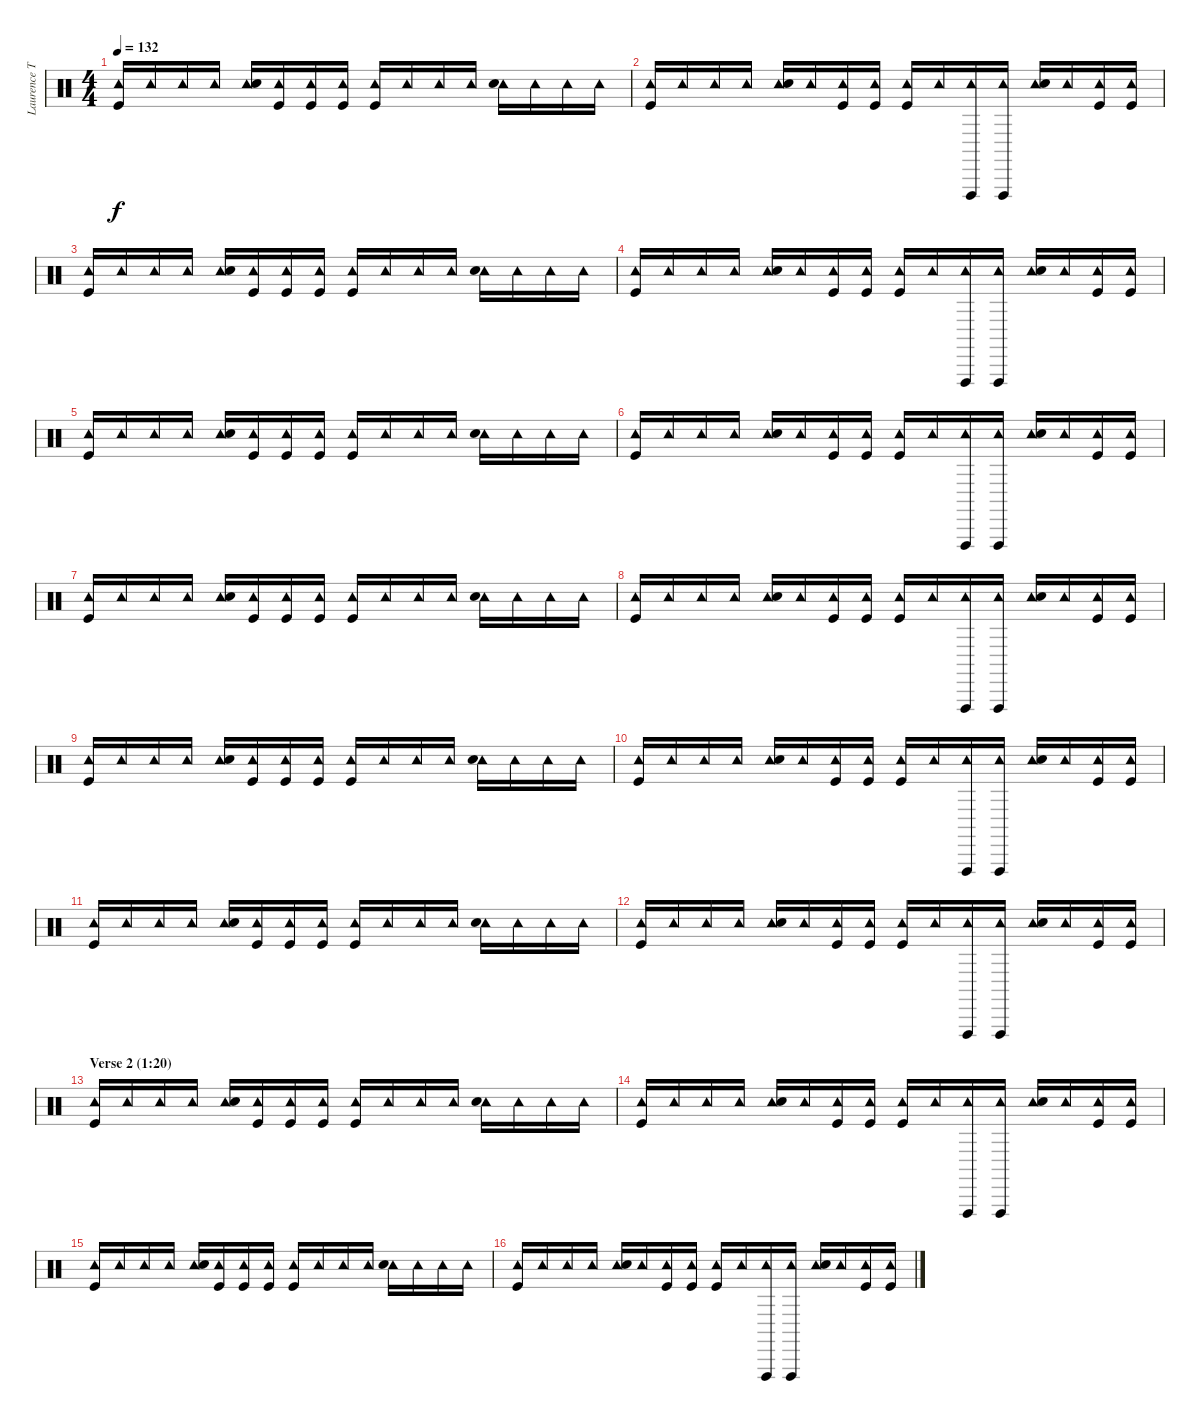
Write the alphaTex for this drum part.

\track ("Laurence Tolhurst (drums)" "Laurence T") {instrument percussion}
\staff {score}
\articulation defaults
\ts (4 4)
\tempo 132
\clef neutral
\ks c
("Tambourine (hit)" "Kick (hit)").16{dy f} "Tambourine (hit)".16 "Tambourine (hit)".16 "Tambourine (hit)".16 ("Tambourine (hit)" "Snare (hit) 2").16 ("Tambourine (hit)" "Kick (hit)").16 ("Tambourine (hit)" "Kick (hit)").16 ("Tambourine (hit)" "Kick (hit)").16 ("Tambourine (hit)" "Kick (hit)").16 "Tambourine (hit)".16 "Tambourine (hit)".16 "Tambourine (hit)".16 ("Tambourine (hit)" "Snare (hit) 2").16 "Tambourine (hit)".16 "Tambourine (hit)".16 "Tambourine (hit)".16 |
("Tambourine (hit)" "Kick (hit)").16 "Tambourine (hit)".16 "Tambourine (hit)".16 "Tambourine (hit)".16 ("Tambourine (hit)" "Snare (hit) 2").16 "Tambourine (hit)".16 ("Tambourine (hit)" "Kick (hit)").16 ("Tambourine (hit)" "Kick (hit)").16 ("Tambourine (hit)" "Kick (hit)").16 "Tambourine (hit)".16 ("Tambourine (hit)" "Vibraslap (hit)").16 ("Tambourine (hit)" "Vibraslap (hit)").16 ("Tambourine (hit)" "Snare (hit) 2").16 "Tambourine (hit)".16 ("Tambourine (hit)" "Kick (hit)").16 ("Tambourine (hit)" "Kick (hit)").16 |
("Tambourine (hit)" "Kick (hit)").16 "Tambourine (hit)".16 "Tambourine (hit)".16 "Tambourine (hit)".16 ("Tambourine (hit)" "Snare (hit) 2").16 ("Tambourine (hit)" "Kick (hit)").16 ("Tambourine (hit)" "Kick (hit)").16 ("Tambourine (hit)" "Kick (hit)").16 ("Tambourine (hit)" "Kick (hit)").16 "Tambourine (hit)".16 "Tambourine (hit)".16 "Tambourine (hit)".16 ("Tambourine (hit)" "Snare (hit) 2").16 "Tambourine (hit)".16 "Tambourine (hit)".16 "Tambourine (hit)".16 |
("Tambourine (hit)" "Kick (hit)").16 "Tambourine (hit)".16 "Tambourine (hit)".16 "Tambourine (hit)".16 ("Tambourine (hit)" "Snare (hit) 2").16 "Tambourine (hit)".16 ("Tambourine (hit)" "Kick (hit)").16 ("Tambourine (hit)" "Kick (hit)").16 ("Tambourine (hit)" "Kick (hit)").16 "Tambourine (hit)".16 ("Tambourine (hit)" "Vibraslap (hit)").16 ("Tambourine (hit)" "Vibraslap (hit)").16 ("Tambourine (hit)" "Snare (hit) 2").16 "Tambourine (hit)".16 ("Tambourine (hit)" "Kick (hit)").16 ("Tambourine (hit)" "Kick (hit)").16 |
("Tambourine (hit)" "Kick (hit)").16 "Tambourine (hit)".16 "Tambourine (hit)".16 "Tambourine (hit)".16 ("Tambourine (hit)" "Snare (hit) 2").16 ("Tambourine (hit)" "Kick (hit)").16 ("Tambourine (hit)" "Kick (hit)").16 ("Tambourine (hit)" "Kick (hit)").16 ("Tambourine (hit)" "Kick (hit)").16 "Tambourine (hit)".16 "Tambourine (hit)".16 "Tambourine (hit)".16 ("Tambourine (hit)" "Snare (hit) 2").16 "Tambourine (hit)".16 "Tambourine (hit)".16 "Tambourine (hit)".16 |
("Tambourine (hit)" "Kick (hit)").16 "Tambourine (hit)".16 "Tambourine (hit)".16 "Tambourine (hit)".16 ("Tambourine (hit)" "Snare (hit) 2").16 "Tambourine (hit)".16 ("Tambourine (hit)" "Kick (hit)").16 ("Tambourine (hit)" "Kick (hit)").16 ("Tambourine (hit)" "Kick (hit)").16 "Tambourine (hit)".16 ("Tambourine (hit)" "Vibraslap (hit)").16 ("Tambourine (hit)" "Vibraslap (hit)").16 ("Tambourine (hit)" "Snare (hit) 2").16 "Tambourine (hit)".16 ("Tambourine (hit)" "Kick (hit)").16 ("Tambourine (hit)" "Kick (hit)").16 |
("Tambourine (hit)" "Kick (hit)").16 "Tambourine (hit)".16 "Tambourine (hit)".16 "Tambourine (hit)".16 ("Tambourine (hit)" "Snare (hit) 2").16 ("Tambourine (hit)" "Kick (hit)").16 ("Tambourine (hit)" "Kick (hit)").16 ("Tambourine (hit)" "Kick (hit)").16 ("Tambourine (hit)" "Kick (hit)").16 "Tambourine (hit)".16 "Tambourine (hit)".16 "Tambourine (hit)".16 ("Tambourine (hit)" "Snare (hit) 2").16 "Tambourine (hit)".16 "Tambourine (hit)".16 "Tambourine (hit)".16 |
("Tambourine (hit)" "Kick (hit)").16 "Tambourine (hit)".16 "Tambourine (hit)".16 "Tambourine (hit)".16 ("Tambourine (hit)" "Snare (hit) 2").16 "Tambourine (hit)".16 ("Tambourine (hit)" "Kick (hit)").16 ("Tambourine (hit)" "Kick (hit)").16 ("Tambourine (hit)" "Kick (hit)").16 "Tambourine (hit)".16 ("Tambourine (hit)" "Vibraslap (hit)").16 ("Tambourine (hit)" "Vibraslap (hit)").16 ("Tambourine (hit)" "Snare (hit) 2").16 "Tambourine (hit)".16 ("Tambourine (hit)" "Kick (hit)").16 ("Tambourine (hit)" "Kick (hit)").16 |
("Tambourine (hit)" "Kick (hit)").16 "Tambourine (hit)".16 "Tambourine (hit)".16 "Tambourine (hit)".16 ("Tambourine (hit)" "Snare (hit) 2").16 ("Tambourine (hit)" "Kick (hit)").16 ("Tambourine (hit)" "Kick (hit)").16 ("Tambourine (hit)" "Kick (hit)").16 ("Tambourine (hit)" "Kick (hit)").16 "Tambourine (hit)".16 "Tambourine (hit)".16 "Tambourine (hit)".16 ("Tambourine (hit)" "Snare (hit) 2").16 "Tambourine (hit)".16 "Tambourine (hit)".16 "Tambourine (hit)".16 |
("Tambourine (hit)" "Kick (hit)").16 "Tambourine (hit)".16 "Tambourine (hit)".16 "Tambourine (hit)".16 ("Tambourine (hit)" "Snare (hit) 2").16 "Tambourine (hit)".16 ("Tambourine (hit)" "Kick (hit)").16 ("Tambourine (hit)" "Kick (hit)").16 ("Tambourine (hit)" "Kick (hit)").16 "Tambourine (hit)".16 ("Tambourine (hit)" "Vibraslap (hit)").16 ("Tambourine (hit)" "Vibraslap (hit)").16 ("Tambourine (hit)" "Snare (hit) 2").16 "Tambourine (hit)".16 ("Tambourine (hit)" "Kick (hit)").16 ("Tambourine (hit)" "Kick (hit)").16 |
("Tambourine (hit)" "Kick (hit)").16 "Tambourine (hit)".16 "Tambourine (hit)".16 "Tambourine (hit)".16 ("Tambourine (hit)" "Snare (hit) 2").16 ("Tambourine (hit)" "Kick (hit)").16 ("Tambourine (hit)" "Kick (hit)").16 ("Tambourine (hit)" "Kick (hit)").16 ("Tambourine (hit)" "Kick (hit)").16 "Tambourine (hit)".16 "Tambourine (hit)".16 "Tambourine (hit)".16 ("Tambourine (hit)" "Snare (hit) 2").16 "Tambourine (hit)".16 "Tambourine (hit)".16 "Tambourine (hit)".16 |
("Tambourine (hit)" "Kick (hit)").16 "Tambourine (hit)".16 "Tambourine (hit)".16 "Tambourine (hit)".16 ("Tambourine (hit)" "Snare (hit) 2").16 "Tambourine (hit)".16 ("Tambourine (hit)" "Kick (hit)").16 ("Tambourine (hit)" "Kick (hit)").16 ("Tambourine (hit)" "Kick (hit)").16 "Tambourine (hit)".16 ("Tambourine (hit)" "Vibraslap (hit)").16 ("Tambourine (hit)" "Vibraslap (hit)").16 ("Tambourine (hit)" "Snare (hit) 2").16 "Tambourine (hit)".16 ("Tambourine (hit)" "Kick (hit)").16 ("Tambourine (hit)" "Kick (hit)").16 |
\section ("" "Verse 2 (1:20)")
("Tambourine (hit)" "Kick (hit)").16 "Tambourine (hit)".16 "Tambourine (hit)".16 "Tambourine (hit)".16 ("Tambourine (hit)" "Snare (hit) 2").16 ("Tambourine (hit)" "Kick (hit)").16 ("Tambourine (hit)" "Kick (hit)").16 ("Tambourine (hit)" "Kick (hit)").16 ("Tambourine (hit)" "Kick (hit)").16 "Tambourine (hit)".16 "Tambourine (hit)".16 "Tambourine (hit)".16 ("Tambourine (hit)" "Snare (hit) 2").16 "Tambourine (hit)".16 "Tambourine (hit)".16 "Tambourine (hit)".16 |
("Tambourine (hit)" "Kick (hit)").16 "Tambourine (hit)".16 "Tambourine (hit)".16 "Tambourine (hit)".16 ("Tambourine (hit)" "Snare (hit) 2").16 "Tambourine (hit)".16 ("Tambourine (hit)" "Kick (hit)").16 ("Tambourine (hit)" "Kick (hit)").16 ("Tambourine (hit)" "Kick (hit)").16 "Tambourine (hit)".16 ("Tambourine (hit)" "Vibraslap (hit)").16 ("Tambourine (hit)" "Vibraslap (hit)").16 ("Tambourine (hit)" "Snare (hit) 2").16 "Tambourine (hit)".16 ("Tambourine (hit)" "Kick (hit)").16 ("Tambourine (hit)" "Kick (hit)").16 |
("Tambourine (hit)" "Kick (hit)").16 "Tambourine (hit)".16 "Tambourine (hit)".16 "Tambourine (hit)".16 ("Tambourine (hit)" "Snare (hit) 2").16 ("Tambourine (hit)" "Kick (hit)").16 ("Tambourine (hit)" "Kick (hit)").16 ("Tambourine (hit)" "Kick (hit)").16 ("Tambourine (hit)" "Kick (hit)").16 "Tambourine (hit)".16 "Tambourine (hit)".16 "Tambourine (hit)".16 ("Tambourine (hit)" "Snare (hit) 2").16 "Tambourine (hit)".16 "Tambourine (hit)".16 "Tambourine (hit)".16 |
("Tambourine (hit)" "Kick (hit)").16 "Tambourine (hit)".16 "Tambourine (hit)".16 "Tambourine (hit)".16 ("Tambourine (hit)" "Snare (hit) 2").16 "Tambourine (hit)".16 ("Tambourine (hit)" "Kick (hit)").16 ("Tambourine (hit)" "Kick (hit)").16 ("Tambourine (hit)" "Kick (hit)").16 "Tambourine (hit)".16 ("Tambourine (hit)" "Vibraslap (hit)").16 ("Tambourine (hit)" "Vibraslap (hit)").16 ("Tambourine (hit)" "Snare (hit) 2").16 "Tambourine (hit)".16 ("Tambourine (hit)" "Kick (hit)").16 ("Tambourine (hit)" "Kick (hit)").16
